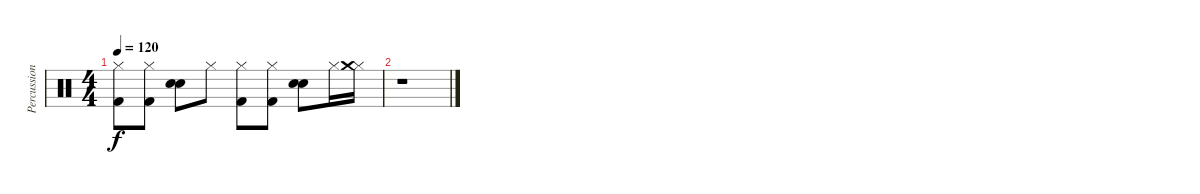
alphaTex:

\track ("Percussions" "Percussion") {instrument percussion}
\staff {score}
\articulation defaults
\ts (4 4)
\tempo 120
\clef neutral
\ks c
("Kick (hit) 2" "Hi-Hat (closed)").8{dy f} ("Kick (hit) 2" "Hi-Hat (closed)").8 ("Hand Clap (hit)" "Electric Snare (hit)").8 "Hi-Hat (closed)".8 ("Kick (hit) 2" "Hi-Hat (closed)").8 ("Kick (hit) 2" "Hi-Hat (closed)").8 ("Hand Clap (hit)" "Electric Snare (hit)").8 "Hi-Hat (closed)".16 ("Hi-Hat (closed)" "Crash medium (hit)").16 |
r.1
